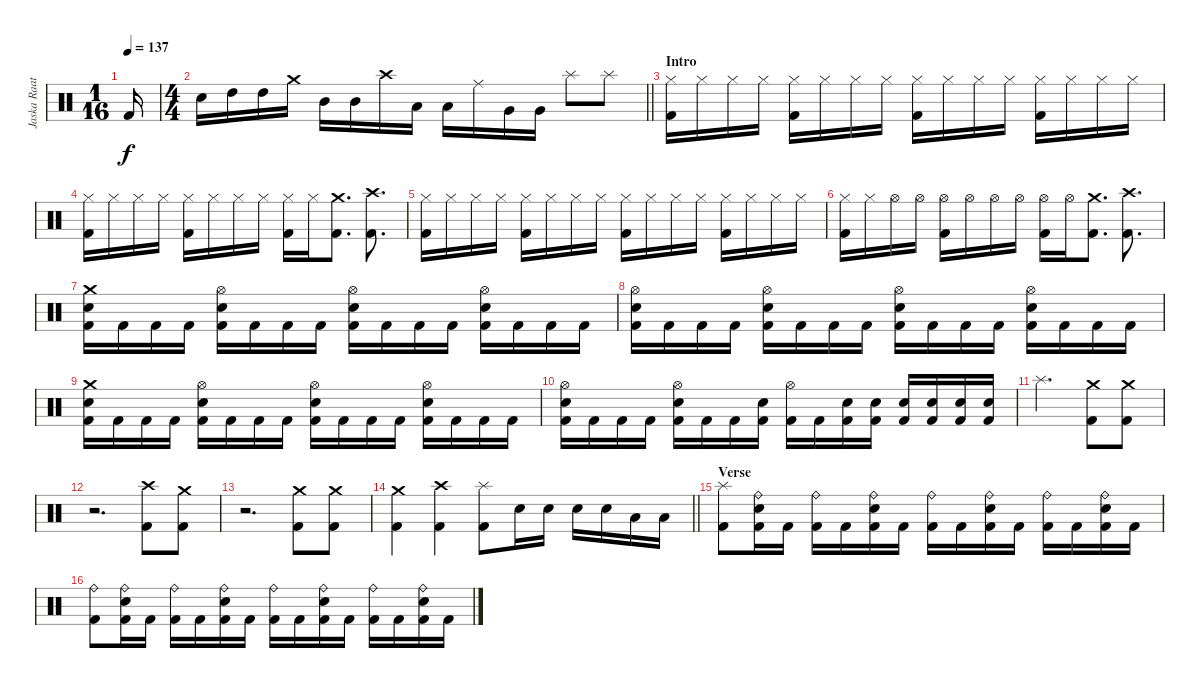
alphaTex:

\track ("Jaska Raatikainen" "Jaska Raat") {instrument percussion}
\staff {score}
\articulation defaults
\ts (1 16)
\tempo 137
\clef neutral
\ks c "Kick (hit) 2".16{dy f}
|
\ts (4 4)
\barLineRight lightlight "Electric Snare (hit)".16 "High Tom (hit)".16 "High Tom (hit)".16 "Crash medium (hit)".16 "Mid Tom (hit)".16 "Mid Tom (hit)".16 "Crash high (hit)".16 "Low Tom (hit)".16 "Low Tom (hit)".16 "Ride (middle)".16 "Very Low Tom (hit)".16 "Very Low Tom (hit)".16 "Splash (hit)".8 "Splash (hit)".8
|
\section ("" "Intro")
("Hi-Hat (closed)" "Kick (hit) 2").16 "Hi-Hat (closed)".16 "Hi-Hat (closed)".16 "Hi-Hat (closed)".16 ("Hi-Hat (closed)" "Kick (hit) 2").16 "Hi-Hat (closed)".16 "Hi-Hat (closed)".16 "Hi-Hat (closed)".16 ("Hi-Hat (closed)" "Kick (hit) 2").16 "Hi-Hat (closed)".16 "Hi-Hat (closed)".16 "Hi-Hat (closed)".16 ("Hi-Hat (closed)" "Kick (hit) 2").16 "Hi-Hat (closed)".16 "Hi-Hat (closed)".16 "Hi-Hat (closed)".16 |
("Hi-Hat (closed)" "Kick (hit) 2").16 "Hi-Hat (closed)".16 "Hi-Hat (closed)".16 "Hi-Hat (closed)".16 ("Hi-Hat (closed)" "Kick (hit) 2").16 "Hi-Hat (closed)".16 "Hi-Hat (closed)".16 "Hi-Hat (closed)".16 ("Hi-Hat (closed)" "Kick (hit) 2").16 "Hi-Hat (closed)".16 ("Crash medium (hit)" "Kick (hit) 2").8{d} ("Crash high (hit)" "Kick (hit) 2").8{d} |
("Hi-Hat (closed)" "Kick (hit) 2").16 "Hi-Hat (closed)".16 "Hi-Hat (closed)".16 "Hi-Hat (closed)".16 ("Hi-Hat (closed)" "Kick (hit) 2").16 "Hi-Hat (closed)".16 "Hi-Hat (closed)".16 "Hi-Hat (closed)".16 ("Hi-Hat (closed)" "Kick (hit) 2").16 "Hi-Hat (closed)".16 "Hi-Hat (closed)".16 "Hi-Hat (closed)".16 ("Hi-Hat (closed)" "Kick (hit) 2").16 "Hi-Hat (closed)".16 "Hi-Hat (closed)".16 "Hi-Hat (closed)".16 |
("Hi-Hat (closed)" "Kick (hit) 2").16 "Hi-Hat (closed)".16 "Hi-Hat (open)".16 "Hi-Hat (open)".16 ("Hi-Hat (open)" "Kick (hit) 2").16 "Hi-Hat (open)".16 "Hi-Hat (open)".16 "Hi-Hat (open)".16 ("Hi-Hat (open)" "Kick (hit) 2").16 "Hi-Hat (open)".16 ("Crash medium (hit)" "Kick (hit) 2").8{d} ("Crash high (hit)" "Kick (hit) 2").8{d} |
("Crash medium (hit)" "Electric Snare (hit)" "Kick (hit) 2").16 "Kick (hit) 2".16 "Kick (hit) 2".16 "Kick (hit) 2".16 ("Hi-Hat (open)" "Electric Snare (hit)" "Kick (hit) 2").16 "Kick (hit) 2".16 "Kick (hit) 2".16 "Kick (hit) 2".16 ("Hi-Hat (open)" "Electric Snare (hit)" "Kick (hit) 2").16 "Kick (hit) 2".16 "Kick (hit) 2".16 "Kick (hit) 2".16 ("Hi-Hat (open)" "Electric Snare (hit)" "Kick (hit) 2").16 "Kick (hit) 2".16 "Kick (hit) 2".16 "Kick (hit) 2".16 |
("Hi-Hat (open)" "Electric Snare (hit)" "Kick (hit) 2").16 "Kick (hit) 2".16 "Kick (hit) 2".16 "Kick (hit) 2".16 ("Hi-Hat (open)" "Electric Snare (hit)" "Kick (hit) 2").16 "Kick (hit) 2".16 "Kick (hit) 2".16 "Kick (hit) 2".16 ("Hi-Hat (open)" "Electric Snare (hit)" "Kick (hit) 2").16 "Kick (hit) 2".16 "Kick (hit) 2".16 "Kick (hit) 2".16 ("Hi-Hat (open)" "Electric Snare (hit)" "Kick (hit) 2").16 "Kick (hit) 2".16 "Kick (hit) 2".16 "Kick (hit) 2".16 |
("Crash medium (hit)" "Electric Snare (hit)" "Kick (hit) 2").16 "Kick (hit) 2".16 "Kick (hit) 2".16 "Kick (hit) 2".16 ("Hi-Hat (open)" "Electric Snare (hit)" "Kick (hit) 2").16 "Kick (hit) 2".16 "Kick (hit) 2".16 "Kick (hit) 2".16 ("Hi-Hat (open)" "Electric Snare (hit)" "Kick (hit) 2").16 "Kick (hit) 2".16 "Kick (hit) 2".16 "Kick (hit) 2".16 ("Hi-Hat (open)" "Electric Snare (hit)" "Kick (hit) 2").16 "Kick (hit) 2".16 "Kick (hit) 2".16 "Kick (hit) 2".16 |
("Hi-Hat (open)" "Electric Snare (hit)" "Kick (hit) 2").16 "Kick (hit) 2".16 "Kick (hit) 2".16 "Kick (hit) 2".16 ("Hi-Hat (open)" "Electric Snare (hit)" "Kick (hit) 2").16 "Kick (hit) 2".16 "Kick (hit) 2".16 ("Electric Snare (hit)" "Kick (hit) 2").16 ("Hi-Hat (open)" "Kick (hit) 2").16 "Kick (hit) 2".16 ("Electric Snare (hit)" "Kick (hit) 2").16 ("Electric Snare (hit)" "Kick (hit) 2").16 ("Electric Snare (hit)" "Kick (hit) 2").16 ("Electric Snare (hit)" "Kick (hit) 2").16 ("Electric Snare (hit)" "Kick (hit) 2").16 ("Electric Snare (hit)" "Kick (hit) 2").16 |
"Splash (hit)".2{d} ("Crash medium (hit)" "Kick (hit) 2").8 ("Crash medium (hit)" "Kick (hit) 2").8 |
r.2{d} ("Crash high (hit)" "Kick (hit) 2").8 ("Crash medium (hit)" "Kick (hit) 2").8 |
r.2{d} ("Crash medium (hit)" "Kick (hit) 2").8 ("Crash medium (hit)" "Kick (hit) 2").8 |
\barLineRight lightlight
("Crash medium (hit)" "Kick (hit) 2").4 ("Crash high (hit)" "Kick (hit) 2").4 ("Splash (hit)" "Kick (hit) 2").8 "Electric Snare (hit)".16 "Electric Snare (hit)".16 "Electric Snare (hit)".16 "Electric Snare (hit)".16 "Low Tom (hit)".16 "Low Tom (hit)".16 |
\section ("" "Verse")
("Splash (hit)" "Kick (hit) 2").8 ("Ride (bell)" "Electric Snare (hit)" "Kick (hit) 2").16 "Kick (hit) 2".16 ("Ride (bell)" "Kick (hit) 2").16 "Kick (hit) 2".16 ("Ride (bell)" "Electric Snare (hit)" "Kick (hit) 2").16 "Kick (hit) 2".16 ("Ride (bell)" "Kick (hit) 2").16 "Kick (hit) 2".16 ("Ride (bell)" "Electric Snare (hit)" "Kick (hit) 2").16 "Kick (hit) 2".16 ("Ride (bell)" "Kick (hit) 2").16 "Kick (hit) 2".16 ("Ride (bell)" "Electric Snare (hit)" "Kick (hit) 2").16 "Kick (hit) 2".16 |
("Ride (bell)" "Kick (hit) 2").8 ("Ride (bell)" "Electric Snare (hit)" "Kick (hit) 2").16 "Kick (hit) 2".16 ("Ride (bell)" "Kick (hit) 2").16 "Kick (hit) 2".16 ("Ride (bell)" "Electric Snare (hit)" "Kick (hit) 2").16 "Kick (hit) 2".16 ("Ride (bell)" "Kick (hit) 2").16 "Kick (hit) 2".16 ("Ride (bell)" "Electric Snare (hit)" "Kick (hit) 2").16 "Kick (hit) 2".16 ("Ride (bell)" "Kick (hit) 2").16 "Kick (hit) 2".16 ("Ride (bell)" "Electric Snare (hit)" "Kick (hit) 2").16 "Kick (hit) 2".16
